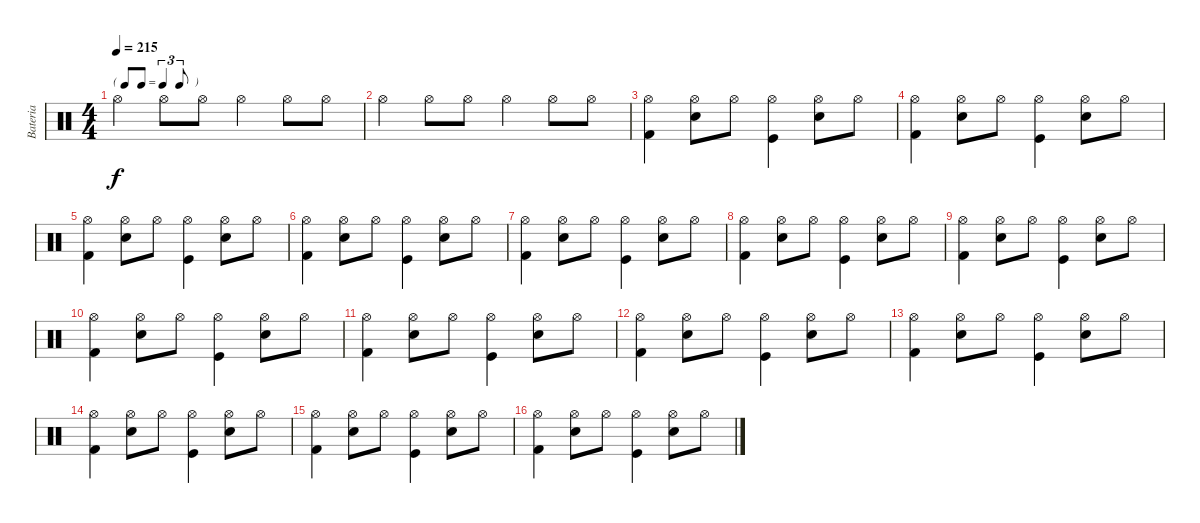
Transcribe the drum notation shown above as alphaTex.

\track ("Bateria" "Bateria") {instrument percussion}
\staff {score}
\articulation defaults
\ts (4 4)
\tf triplet8th
\tempo 215
\clef neutral
\ks c "Hi-Hat (open)".4{dy f} "Hi-Hat (open)".8 "Hi-Hat (open)".8 "Hi-Hat (open)".4 "Hi-Hat (open)".8 "Hi-Hat (open)".8
|
"Hi-Hat (open)".4 "Hi-Hat (open)".8 "Hi-Hat (open)".8 "Hi-Hat (open)".4 "Hi-Hat (open)".8 "Hi-Hat (open)".8 |
("Hi-Hat (open)" "Kick (hit) 2").4 ("Hi-Hat (open)" "Electric Snare (hit)").8 "Hi-Hat (open)".8 ("Hi-Hat (open)" "Kick (hit)").4 ("Hi-Hat (open)" "Electric Snare (hit)").8 "Hi-Hat (open)".8 |
("Hi-Hat (open)" "Kick (hit) 2").4 ("Hi-Hat (open)" "Electric Snare (hit)").8 "Hi-Hat (open)".8 ("Hi-Hat (open)" "Kick (hit)").4 ("Hi-Hat (open)" "Electric Snare (hit)").8 "Hi-Hat (open)".8 |
("Hi-Hat (open)" "Kick (hit) 2").4 ("Hi-Hat (open)" "Electric Snare (hit)").8 "Hi-Hat (open)".8 ("Hi-Hat (open)" "Kick (hit)").4 ("Hi-Hat (open)" "Electric Snare (hit)").8 "Hi-Hat (open)".8 |
("Hi-Hat (open)" "Kick (hit) 2").4 ("Hi-Hat (open)" "Electric Snare (hit)").8 "Hi-Hat (open)".8 ("Hi-Hat (open)" "Kick (hit)").4 ("Hi-Hat (open)" "Electric Snare (hit)").8 "Hi-Hat (open)".8 |
("Hi-Hat (open)" "Kick (hit) 2").4 ("Hi-Hat (open)" "Electric Snare (hit)").8 "Hi-Hat (open)".8 ("Hi-Hat (open)" "Kick (hit)").4 ("Hi-Hat (open)" "Electric Snare (hit)").8 "Hi-Hat (open)".8 |
("Hi-Hat (open)" "Kick (hit) 2").4 ("Hi-Hat (open)" "Electric Snare (hit)").8 "Hi-Hat (open)".8 ("Hi-Hat (open)" "Kick (hit)").4 ("Hi-Hat (open)" "Electric Snare (hit)").8 "Hi-Hat (open)".8 |
("Hi-Hat (open)" "Kick (hit) 2").4 ("Hi-Hat (open)" "Electric Snare (hit)").8 "Hi-Hat (open)".8 ("Hi-Hat (open)" "Kick (hit)").4 ("Hi-Hat (open)" "Electric Snare (hit)").8 "Hi-Hat (open)".8 |
("Hi-Hat (open)" "Kick (hit) 2").4 ("Hi-Hat (open)" "Electric Snare (hit)").8 "Hi-Hat (open)".8 ("Hi-Hat (open)" "Kick (hit)").4 ("Hi-Hat (open)" "Electric Snare (hit)").8 "Hi-Hat (open)".8 |
("Hi-Hat (open)" "Kick (hit) 2").4 ("Hi-Hat (open)" "Electric Snare (hit)").8 "Hi-Hat (open)".8 ("Hi-Hat (open)" "Kick (hit)").4 ("Hi-Hat (open)" "Electric Snare (hit)").8 "Hi-Hat (open)".8 |
("Hi-Hat (open)" "Kick (hit) 2").4 ("Hi-Hat (open)" "Electric Snare (hit)").8 "Hi-Hat (open)".8 ("Hi-Hat (open)" "Kick (hit)").4 ("Hi-Hat (open)" "Electric Snare (hit)").8 "Hi-Hat (open)".8 |
("Hi-Hat (open)" "Kick (hit) 2").4 ("Hi-Hat (open)" "Electric Snare (hit)").8 "Hi-Hat (open)".8 ("Hi-Hat (open)" "Kick (hit)").4 ("Hi-Hat (open)" "Electric Snare (hit)").8 "Hi-Hat (open)".8 |
("Hi-Hat (open)" "Kick (hit) 2").4 ("Hi-Hat (open)" "Electric Snare (hit)").8 "Hi-Hat (open)".8 ("Hi-Hat (open)" "Kick (hit)").4 ("Hi-Hat (open)" "Electric Snare (hit)").8 "Hi-Hat (open)".8 |
("Hi-Hat (open)" "Kick (hit) 2").4 ("Hi-Hat (open)" "Electric Snare (hit)").8 "Hi-Hat (open)".8 ("Hi-Hat (open)" "Kick (hit)").4 ("Hi-Hat (open)" "Electric Snare (hit)").8 "Hi-Hat (open)".8 |
("Hi-Hat (open)" "Kick (hit) 2").4 ("Hi-Hat (open)" "Electric Snare (hit)").8 "Hi-Hat (open)".8 ("Hi-Hat (open)" "Kick (hit)").4 ("Hi-Hat (open)" "Electric Snare (hit)").8 "Hi-Hat (open)".8
